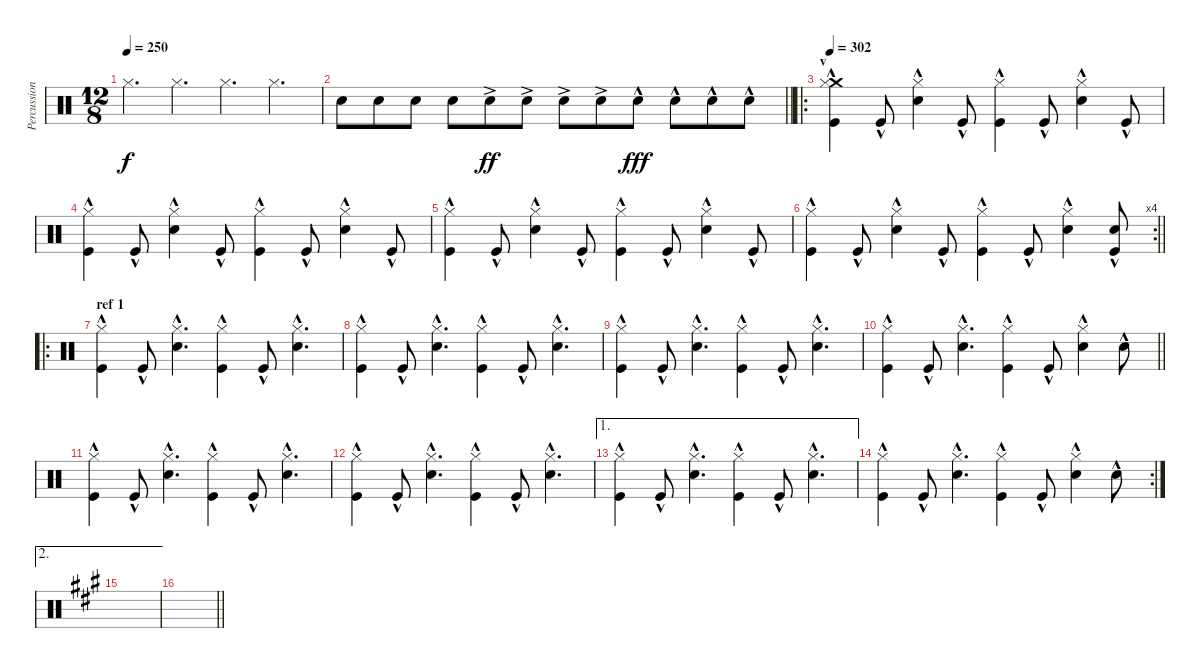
\track ("Percussion" "Percussion") {instrument percussion}
\staff {score}
\articulation defaults
\ts (12 8)
\tempo 250
\tempo 302
\tempo 250
\clef neutral
\ks c "Hi-Hat (closed)".4{d dy f} "Hi-Hat (closed)".4{d} "Hi-Hat (closed)".4{d} "Hi-Hat (closed)".4{d}
|
\barLineRight lightlight "Electric Snare (hit)".8 "Electric Snare (hit)".8 "Electric Snare (hit)".8 "Electric Snare (hit)".8 "Electric Snare (hit)"{ac}.8{dy ff} "Electric Snare (hit)"{ac}.8 "Electric Snare (hit)"{ac}.8 "Electric Snare (hit)"{ac}.8 "Electric Snare (hit)"{hac}.8{dy fff} "Electric Snare (hit)"{hac}.8 "Electric Snare (hit)"{hac}.8 "Electric Snare (hit)"{hac}.8
|
\ro
\section ("" "v")
\tempo 302
("Crash medium (hit)" "Hi-Hat (closed)"{hac} "Kick (hit)"{hac}).4 "Kick (hit)"{hac}.8 ("Hi-Hat (closed)"{hac} "Electric Snare (hit)"{hac}).4 "Kick (hit)"{hac}.8 ("Hi-Hat (closed)"{hac} "Kick (hit)"{hac}).4 "Kick (hit)"{hac}.8 ("Hi-Hat (closed)"{hac} "Electric Snare (hit)"{hac}).4 "Kick (hit)"{hac}.8 |
("Hi-Hat (closed)"{hac} "Kick (hit)"{hac}).4 "Kick (hit)"{hac}.8 ("Hi-Hat (closed)"{hac} "Electric Snare (hit)"{hac}).4 "Kick (hit)"{hac}.8 ("Hi-Hat (closed)"{hac} "Kick (hit)"{hac}).4 "Kick (hit)"{hac}.8 ("Hi-Hat (closed)"{hac} "Electric Snare (hit)"{hac}).4 "Kick (hit)"{hac}.8 |
("Hi-Hat (closed)"{hac} "Kick (hit)"{hac}).4 "Kick (hit)"{hac}.8 ("Hi-Hat (closed)"{hac} "Electric Snare (hit)"{hac}).4 "Kick (hit)"{hac}.8 ("Hi-Hat (closed)"{hac} "Kick (hit)"{hac}).4 "Kick (hit)"{hac}.8 ("Hi-Hat (closed)"{hac} "Electric Snare (hit)"{hac}).4 "Kick (hit)"{hac}.8 |
\rc 4
\barLineRight lightlight
("Hi-Hat (closed)"{hac} "Kick (hit)"{hac}).4 "Kick (hit)"{hac}.8 ("Hi-Hat (closed)"{hac} "Electric Snare (hit)"{hac}).4 "Kick (hit)"{hac}.8 ("Hi-Hat (closed)"{hac} "Kick (hit)"{hac}).4 "Kick (hit)"{hac}.8 ("Hi-Hat (closed)"{hac} "Electric Snare (hit)"{hac}).4 ("Electric Snare (hit)"{hac} "Kick (hit)"{hac}).8 |
\ro
\section ("" "ref 1")
("Hi-Hat (closed)"{hac} "Kick (hit)"{hac}).4 "Kick (hit)"{hac}.8 ("Hi-Hat (closed)"{hac} "Electric Snare (hit)"{hac}).4{d} ("Hi-Hat (closed)"{hac} "Kick (hit)"{hac}).4 "Kick (hit)"{hac}.8 ("Hi-Hat (closed)"{hac} "Electric Snare (hit)"{hac}).4{d} |
("Hi-Hat (closed)"{hac} "Kick (hit)"{hac}).4 "Kick (hit)"{hac}.8 ("Hi-Hat (closed)"{hac} "Electric Snare (hit)"{hac}).4{d} ("Hi-Hat (closed)"{hac} "Kick (hit)"{hac}).4 "Kick (hit)"{hac}.8 ("Hi-Hat (closed)"{hac} "Electric Snare (hit)"{hac}).4{d} |
("Hi-Hat (closed)"{hac} "Kick (hit)"{hac}).4 "Kick (hit)"{hac}.8 ("Hi-Hat (closed)"{hac} "Electric Snare (hit)"{hac}).4{d} ("Hi-Hat (closed)"{hac} "Kick (hit)"{hac}).4 "Kick (hit)"{hac}.8 ("Hi-Hat (closed)"{hac} "Electric Snare (hit)"{hac}).4{d} |
\barLineRight lightlight
("Hi-Hat (closed)"{hac} "Kick (hit)"{hac}).4 "Kick (hit)"{hac}.8 ("Hi-Hat (closed)"{hac} "Electric Snare (hit)"{hac}).4{d} ("Hi-Hat (closed)"{hac} "Kick (hit)"{hac}).4 "Kick (hit)"{hac}.8 ("Hi-Hat (closed)"{hac} "Electric Snare (hit)"{hac}).4 "Electric Snare (hit)"{hac}.8 |
("Hi-Hat (closed)"{hac} "Kick (hit)"{hac}).4 "Kick (hit)"{hac}.8 ("Hi-Hat (closed)"{hac} "Electric Snare (hit)"{hac}).4{d} ("Hi-Hat (closed)"{hac} "Kick (hit)"{hac}).4 "Kick (hit)"{hac}.8 ("Hi-Hat (closed)"{hac} "Electric Snare (hit)"{hac}).4{d} |
("Hi-Hat (closed)"{hac} "Kick (hit)"{hac}).4 "Kick (hit)"{hac}.8 ("Hi-Hat (closed)"{hac} "Electric Snare (hit)"{hac}).4{d} ("Hi-Hat (closed)"{hac} "Kick (hit)"{hac}).4 "Kick (hit)"{hac}.8 ("Hi-Hat (closed)"{hac} "Electric Snare (hit)"{hac}).4{d} |
\ae 1
("Hi-Hat (closed)"{hac} "Kick (hit)"{hac}).4 "Kick (hit)"{hac}.8 ("Hi-Hat (closed)"{hac} "Electric Snare (hit)"{hac}).4{d} ("Hi-Hat (closed)"{hac} "Kick (hit)"{hac}).4 "Kick (hit)"{hac}.8 ("Hi-Hat (closed)"{hac} "Electric Snare (hit)"{hac}).4{d} |
\rc 2
("Hi-Hat (closed)"{hac} "Kick (hit)"{hac}).4 "Kick (hit)"{hac}.8 ("Hi-Hat (closed)"{hac} "Electric Snare (hit)"{hac}).4{d} ("Hi-Hat (closed)"{hac} "Kick (hit)"{hac}).4 "Kick (hit)"{hac}.8 ("Hi-Hat (closed)"{hac} "Electric Snare (hit)"{hac}).4 "Electric Snare (hit)"{hac}.8 |
\ae 2
\ks a
|
\barLineRight lightlight
